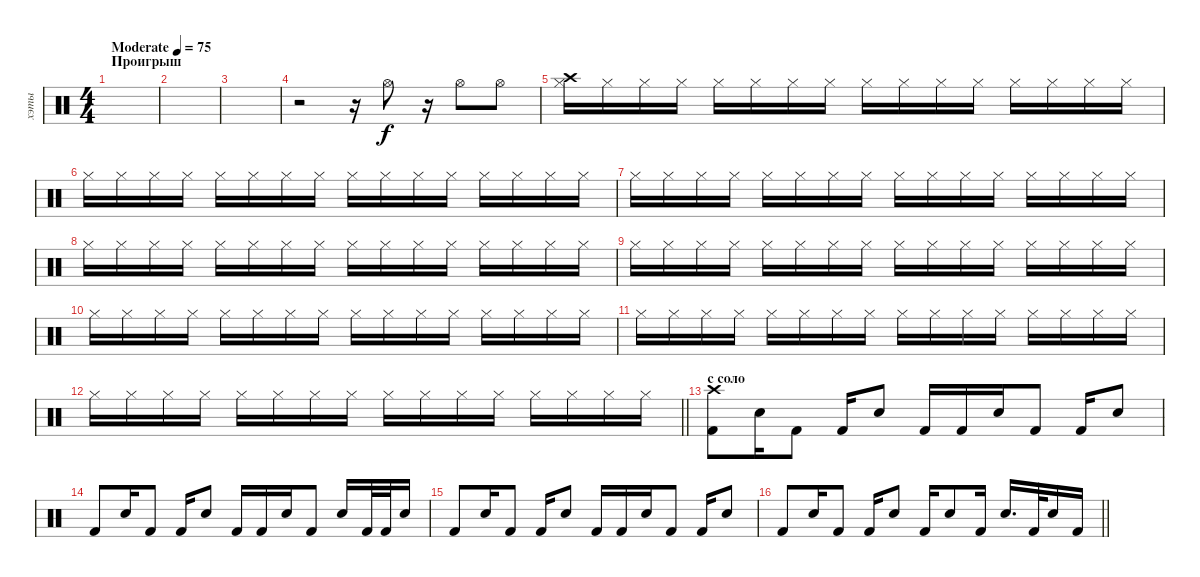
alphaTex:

\track ("хэты" "хэты") {instrument percussion}
\staff {score}
\articulation defaults
\ts (4 4)
\section ("" "Проигрыш")
\tempo (75 "Moderate")
\clef neutral
\ks c
|
|
|
r.2 r.16 "Hi-Hat (open)".8 r.16 "Hi-Hat (open)".8 "Hi-Hat (open)".8 |
("Crash high (hit)" "Hi-Hat (closed)").16 "Hi-Hat (closed)".16 "Hi-Hat (closed)".16 "Hi-Hat (closed)".16 "Hi-Hat (closed)".16 "Hi-Hat (closed)".16 "Hi-Hat (closed)".16 "Hi-Hat (closed)".16 "Hi-Hat (closed)".16 "Hi-Hat (closed)".16 "Hi-Hat (closed)".16 "Hi-Hat (closed)".16 "Hi-Hat (closed)".16 "Hi-Hat (closed)".16 "Hi-Hat (closed)".16 "Hi-Hat (closed)".16 |
"Hi-Hat (closed)".16 "Hi-Hat (closed)".16 "Hi-Hat (closed)".16 "Hi-Hat (closed)".16 "Hi-Hat (closed)".16 "Hi-Hat (closed)".16 "Hi-Hat (closed)".16 "Hi-Hat (closed)".16 "Hi-Hat (closed)".16 "Hi-Hat (closed)".16 "Hi-Hat (closed)".16 "Hi-Hat (closed)".16 "Hi-Hat (closed)".16 "Hi-Hat (closed)".16 "Hi-Hat (closed)".16 "Hi-Hat (closed)".16 |
"Hi-Hat (closed)".16 "Hi-Hat (closed)".16 "Hi-Hat (closed)".16 "Hi-Hat (closed)".16 "Hi-Hat (closed)".16 "Hi-Hat (closed)".16 "Hi-Hat (closed)".16 "Hi-Hat (closed)".16 "Hi-Hat (closed)".16 "Hi-Hat (closed)".16 "Hi-Hat (closed)".16 "Hi-Hat (closed)".16 "Hi-Hat (closed)".16 "Hi-Hat (closed)".16 "Hi-Hat (closed)".16 "Hi-Hat (closed)".16 |
"Hi-Hat (closed)".16 "Hi-Hat (closed)".16 "Hi-Hat (closed)".16 "Hi-Hat (closed)".16 "Hi-Hat (closed)".16 "Hi-Hat (closed)".16 "Hi-Hat (closed)".16 "Hi-Hat (closed)".16 "Hi-Hat (closed)".16 "Hi-Hat (closed)".16 "Hi-Hat (closed)".16 "Hi-Hat (closed)".16 "Hi-Hat (closed)".16 "Hi-Hat (closed)".16 "Hi-Hat (closed)".16 "Hi-Hat (closed)".16 |
"Hi-Hat (closed)".16 "Hi-Hat (closed)".16 "Hi-Hat (closed)".16 "Hi-Hat (closed)".16 "Hi-Hat (closed)".16 "Hi-Hat (closed)".16 "Hi-Hat (closed)".16 "Hi-Hat (closed)".16 "Hi-Hat (closed)".16 "Hi-Hat (closed)".16 "Hi-Hat (closed)".16 "Hi-Hat (closed)".16 "Hi-Hat (closed)".16 "Hi-Hat (closed)".16 "Hi-Hat (closed)".16 "Hi-Hat (closed)".16 |
"Hi-Hat (closed)".16 "Hi-Hat (closed)".16 "Hi-Hat (closed)".16 "Hi-Hat (closed)".16 "Hi-Hat (closed)".16 "Hi-Hat (closed)".16 "Hi-Hat (closed)".16 "Hi-Hat (closed)".16 "Hi-Hat (closed)".16 "Hi-Hat (closed)".16 "Hi-Hat (closed)".16 "Hi-Hat (closed)".16 "Hi-Hat (closed)".16 "Hi-Hat (closed)".16 "Hi-Hat (closed)".16 "Hi-Hat (closed)".16 |
"Hi-Hat (closed)".16 "Hi-Hat (closed)".16 "Hi-Hat (closed)".16 "Hi-Hat (closed)".16 "Hi-Hat (closed)".16 "Hi-Hat (closed)".16 "Hi-Hat (closed)".16 "Hi-Hat (closed)".16 "Hi-Hat (closed)".16 "Hi-Hat (closed)".16 "Hi-Hat (closed)".16 "Hi-Hat (closed)".16 "Hi-Hat (closed)".16 "Hi-Hat (closed)".16 "Hi-Hat (closed)".16 "Hi-Hat (closed)".16 |
\barLineRight lightlight "Hi-Hat (closed)".16 "Hi-Hat (closed)".16 "Hi-Hat (closed)".16 "Hi-Hat (closed)".16 "Hi-Hat (closed)".16 "Hi-Hat (closed)".16 "Hi-Hat (closed)".16 "Hi-Hat (closed)".16 "Hi-Hat (closed)".16 "Hi-Hat (closed)".16 "Hi-Hat (closed)".16 "Hi-Hat (closed)".16 "Hi-Hat (closed)".16 "Hi-Hat (closed)".16 "Hi-Hat (closed)".16 "Hi-Hat (closed)".16
|
\section ("" "с соло")
("Crash high (hit)" "Kick (hit) 2").8 "Electric Snare (hit)".16 "Kick (hit) 2".8 "Kick (hit) 2".16 "Electric Snare (hit)".8 "Kick (hit) 2".16 "Kick (hit) 2".16 "Electric Snare (hit)".16 "Kick (hit) 2".8 "Kick (hit) 2".16 "Electric Snare (hit)".8 |
"Kick (hit) 2".8 "Electric Snare (hit)".16 "Kick (hit) 2".8 "Kick (hit) 2".16 "Electric Snare (hit)".8 "Kick (hit) 2".16 "Kick (hit) 2".16 "Electric Snare (hit)".16 "Kick (hit) 2".8 "Electric Snare (hit)".16 "Kick (hit) 2".32 "Kick (hit) 2".32 "Electric Snare (hit)".16 |
"Kick (hit) 2".8 "Electric Snare (hit)".16 "Kick (hit) 2".8 "Kick (hit) 2".16 "Electric Snare (hit)".8 "Kick (hit) 2".16 "Kick (hit) 2".16 "Electric Snare (hit)".16 "Kick (hit) 2".8 "Kick (hit) 2".16 "Electric Snare (hit)".8 |
\barLineRight lightlight "Kick (hit) 2".8 "Electric Snare (hit)".16 "Kick (hit) 2".8 "Kick (hit) 2".16 "Electric Snare (hit)".8 "Kick (hit) 2".16 "Electric Snare (hit)".8 "Kick (hit) 2".16 "Electric Snare (hit)".16{d} "Kick (hit) 2".32 "Electric Snare (hit)".16 "Kick (hit) 2".16
